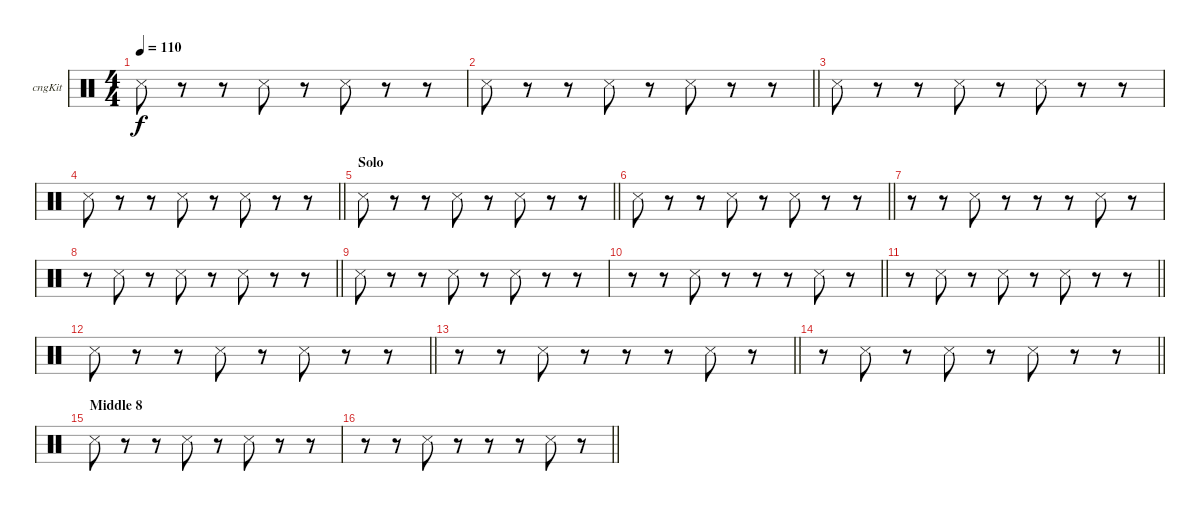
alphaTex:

\bracketExtendMode groupsimilarinstruments
\firstSystemTrackNameOrientation horizontal
\otherSystemsTrackNameOrientation horizontal
\track ("Congas" "cngKit") {instrument percussion}
\staff {score}
\articulation defaults
\ts (4 4)
\tempo 110
\clef neutral
\ks c "Snare (side stick) 3".8{dy f}
r.8 r.8 "Snare (side stick) 3".8 r.8 "Snare (side stick) 3".8 r.8 r.8 |
\barLineRight lightlight "Snare (side stick) 3".8
r.8 r.8 "Snare (side stick) 3".8 r.8 "Snare (side stick) 3".8 r.8 r.8 |
"Snare (side stick) 3".8 r.8 r.8 "Snare (side stick) 3".8 r.8 "Snare (side stick) 3".8 r.8 r.8 |
\barLineRight lightlight "Snare (side stick) 3".8
r.8 r.8 "Snare (side stick) 3".8 r.8 "Snare (side stick) 3".8 r.8 r.8 |
\section ("" "Solo")
\barLineRight lightlight "Snare (side stick) 3".8
r.8 r.8 "Snare (side stick) 3".8 r.8 "Snare (side stick) 3".8 r.8 r.8 |
\barLineRight lightlight "Snare (side stick) 3".8
r.8 r.8 "Snare (side stick) 3".8 r.8 "Snare (side stick) 3".8 r.8 r.8 |
r.8 r.8 "Snare (side stick) 3".8 r.8 r.8 r.8 "Snare (side stick) 3".8 r.8 |
\barLineRight lightlight
r.8 "Snare (side stick) 3".8 r.8 "Snare (side stick) 3".8 r.8 "Snare (side stick) 3".8 r.8 r.8 |
"Snare (side stick) 3".8 r.8 r.8 "Snare (side stick) 3".8 r.8 "Snare (side stick) 3".8 r.8 r.8 |
\barLineRight lightlight
r.8 r.8 "Snare (side stick) 3".8 r.8 r.8 r.8 "Snare (side stick) 3".8 r.8 |
\barLineRight lightlight
r.8 "Snare (side stick) 3".8 r.8 "Snare (side stick) 3".8 r.8 "Snare (side stick) 3".8 r.8 r.8 |
\barLineRight lightlight "Snare (side stick) 3".8
r.8 r.8 "Snare (side stick) 3".8 r.8 "Snare (side stick) 3".8 r.8 r.8 |
\barLineRight lightlight
r.8 r.8 "Snare (side stick) 3".8 r.8 r.8 r.8 "Snare (side stick) 3".8 r.8 |
\barLineRight lightlight
r.8 "Snare (side stick) 3".8 r.8 "Snare (side stick) 3".8 r.8 "Snare (side stick) 3".8 r.8 r.8 |
\section ("" "Middle 8")
"Snare (side stick) 3".8 r.8 r.8 "Snare (side stick) 3".8 r.8 "Snare (side stick) 3".8 r.8 r.8 |
\barLineRight lightlight
r.8 r.8 "Snare (side stick) 3".8 r.8 r.8 r.8 "Snare (side stick) 3".8 r.8
